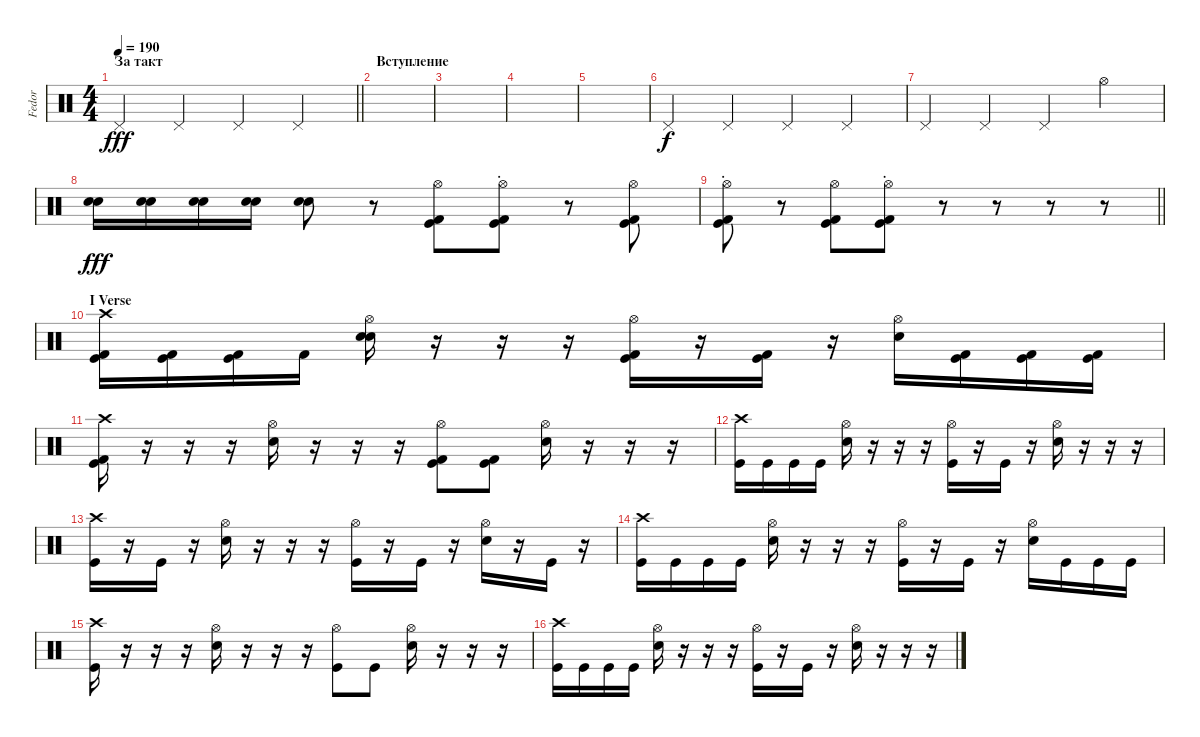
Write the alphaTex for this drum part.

\track ("Fedor" "Fedor") {instrument percussion}
\staff {score}
\articulation defaults
\ts (4 4)
\section ("" "За такт")
\tempo 190
\clef neutral
\barLineRight lightlight
\ks c "Pedal Hi-Hat (hit)".4{dy fff} "Pedal Hi-Hat (hit)".4 "Pedal Hi-Hat (hit)".4 "Pedal Hi-Hat (hit)".4
|
\section ("" "Вступление")
|
|
|
|
"Pedal Hi-Hat (hit)".4{dy f} "Pedal Hi-Hat (hit)".4 "Pedal Hi-Hat (hit)".4 "Pedal Hi-Hat (hit)".4 |
"Pedal Hi-Hat (hit)".4 "Pedal Hi-Hat (hit)".4 "Pedal Hi-Hat (hit)".4 "Hi-Hat (open)".4 |
("Electric Snare (hit)" "Snare (hit) 2").16{dy fff} ("Electric Snare (hit)" "Snare (hit) 2").16 ("Electric Snare (hit)" "Snare (hit) 2").16 ("Electric Snare (hit)" "Snare (hit) 2").16 ("Electric Snare (hit)" "Snare (hit) 2").8 r.8 ("Hi-Hat (open)" "Kick (hit) 2" "Kick (hit)").8 ("Hi-Hat (open)"{st} "Kick (hit) 2" "Kick (hit)").8 r.8 ("Hi-Hat (open)" "Kick (hit) 2" "Kick (hit)").8 |
\barLineRight lightlight
("Hi-Hat (open)"{st} "Kick (hit) 2" "Kick (hit)").8 r.8 ("Hi-Hat (open)" "Kick (hit) 2" "Kick (hit)").8 ("Hi-Hat (open)"{st} "Kick (hit) 2" "Kick (hit)").8 r.8 r.8 r.8 r.8 |
\section ("" "I Verse")
("Crash high (hit)" "Kick (hit) 2" "Kick (hit)").16 ("Kick (hit) 2" "Kick (hit)").16 ("Kick (hit) 2" "Kick (hit)").16 "Kick (hit) 2".16 ("Hi-Hat (open)" "Electric Snare (hit)" "Snare (hit) 2").16 r.16 r.16 r.16 ("Hi-Hat (open)" "Kick (hit) 2" "Kick (hit)").16 r.16 ("Kick (hit) 2" "Kick (hit)").16 r.16 ("Hi-Hat (open)" "Electric Snare (hit)").16 ("Kick (hit) 2" "Kick (hit)").16 ("Kick (hit) 2" "Kick (hit)").16 ("Kick (hit) 2" "Kick (hit)").16 |
("Crash high (hit)" "Kick (hit) 2" "Kick (hit)").16 r.16 r.16 r.16 ("Hi-Hat (open)" "Electric Snare (hit)").16 r.16 r.16 r.16 ("Hi-Hat (open)" "Kick (hit) 2" "Kick (hit)").8 ("Kick (hit) 2" "Kick (hit)").8 ("Hi-Hat (open)" "Electric Snare (hit)").16 r.16 r.16 r.16 |
("Crash high (hit)" "Kick (hit)").16 "Kick (hit)".16 "Kick (hit)".16 "Kick (hit)".16 ("Hi-Hat (open)" "Electric Snare (hit)").16 r.16 r.16 r.16 ("Hi-Hat (open)" "Kick (hit)").16 r.16 "Kick (hit)".16 r.16 ("Hi-Hat (open)" "Electric Snare (hit)").16 r.16 r.16 r.16 |
("Crash high (hit)" "Kick (hit)").16 r.16 "Kick (hit)".16 r.16 ("Hi-Hat (open)" "Electric Snare (hit)").16 r.16 r.16 r.16 ("Hi-Hat (open)" "Kick (hit)").16 r.16 "Kick (hit)".16 r.16 ("Hi-Hat (open)" "Electric Snare (hit)").16 r.16 "Kick (hit)".16 r.16 |
("Crash high (hit)" "Kick (hit)").16 "Kick (hit)".16 "Kick (hit)".16 "Kick (hit)".16 ("Hi-Hat (open)" "Electric Snare (hit)").16 r.16 r.16 r.16 ("Hi-Hat (open)" "Kick (hit)").16 r.16 "Kick (hit)".16 r.16 ("Hi-Hat (open)" "Electric Snare (hit)").16 "Kick (hit)".16 "Kick (hit)".16 "Kick (hit)".16 |
("Crash high (hit)" "Kick (hit)").16 r.16 r.16 r.16 ("Hi-Hat (open)" "Electric Snare (hit)").16 r.16 r.16 r.16 ("Hi-Hat (open)" "Kick (hit)").8 "Kick (hit)".8 ("Hi-Hat (open)" "Electric Snare (hit)").16 r.16 r.16 r.16 |
("Crash high (hit)" "Kick (hit)").16 "Kick (hit)".16 "Kick (hit)".16 "Kick (hit)".16 ("Hi-Hat (open)" "Electric Snare (hit)").16 r.16 r.16 r.16 ("Hi-Hat (open)" "Kick (hit)").16 r.16 "Kick (hit)".16 r.16 ("Hi-Hat (open)" "Electric Snare (hit)").16 r.16 r.16 r.16
